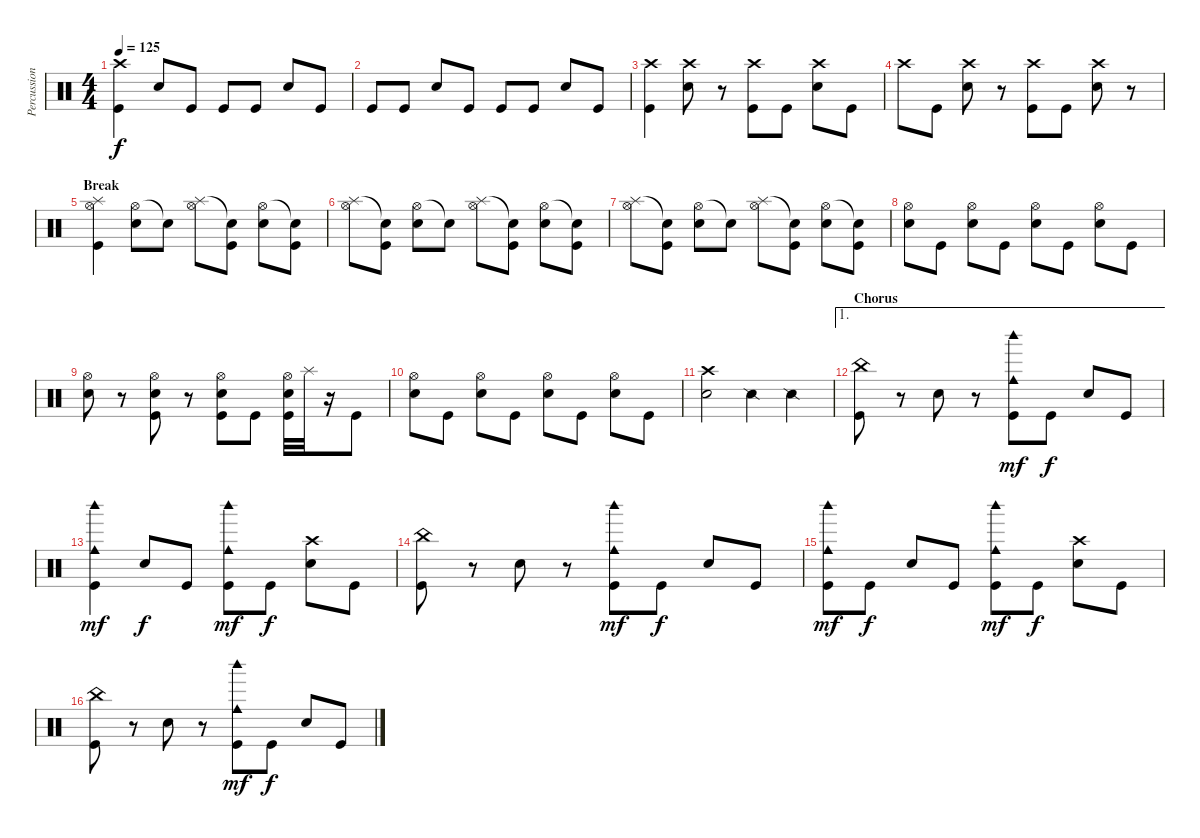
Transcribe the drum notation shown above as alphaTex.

\track ("Percussion" "Percussion") {instrument percussion}
\staff {score}
\articulation defaults
\ts (4 4)
\tempo 125
\clef neutral
\ks c
("Crash high (hit)" "Kick (hit)").4{dy f} "Snare (hit) 2".8 "Kick (hit)".8 "Kick (hit)".8 "Kick (hit)".8 "Snare (hit) 2".8 "Kick (hit)".8 |
"Kick (hit)".8 "Kick (hit)".8 "Snare (hit) 2".8 "Kick (hit)".8 "Kick (hit)".8 "Kick (hit)".8 "Snare (hit) 2".8 "Kick (hit)".8 |
("Crash high (hit)" "Kick (hit)").4 ("Crash high (hit)" "Snare (hit) 2").8 r.8 ("Crash high (hit)" "Kick (hit)").8 "Kick (hit)".8 ("Crash high (hit)" "Snare (hit) 2").8 "Kick (hit)".8 |
"Crash high (hit)".8 "Kick (hit)".8 ("Crash high (hit)" "Snare (hit) 2").8 r.8 ("Crash high (hit)" "Kick (hit)").8 "Kick (hit)".8 ("Crash high (hit)" "Snare (hit) 2").8 r.8 |
\section ("" "Break")
("Splash (hit)" "Hi-Hat (open)" "Kick (hit)").4 ("Hi-Hat (open)" "Snare (hit) 2").8 "Snare (hit)"{t}.8 ("Splash (hit)" "Hi-Hat (open)").8 ("Snare (hit)"{t} "Kick (hit)").8 ("Hi-Hat (open)" "Snare (hit) 2").8 ("Snare (hit)"{t} "Kick (hit)").8 |
("Splash (hit)" "Hi-Hat (open)").8 ("Snare (hit)"{t} "Kick (hit)").8 ("Hi-Hat (open)" "Snare (hit) 2").8 "Snare (hit)"{t}.8 ("Splash (hit)" "Hi-Hat (open)").8 ("Snare (hit)"{t} "Kick (hit)").8 ("Hi-Hat (open)" "Snare (hit) 2").8 ("Snare (hit)"{t} "Kick (hit)").8 |
("Splash (hit)" "Hi-Hat (open)").8 ("Snare (hit)"{t} "Kick (hit)").8 ("Hi-Hat (open)" "Snare (hit) 2").8 "Snare (hit)"{t}.8 ("Splash (hit)" "Hi-Hat (open)").8 ("Snare (hit)"{t} "Kick (hit)").8 ("Hi-Hat (open)" "Snare (hit) 2").8 ("Snare (hit)"{t} "Kick (hit)").8 |
("Hi-Hat (open)" "Snare (hit) 2").8 "Kick (hit)".8 ("Hi-Hat (open)" "Snare (hit) 2").8 "Kick (hit)".8 ("Hi-Hat (open)" "Snare (hit) 2").8 "Kick (hit)".8 ("Hi-Hat (open)" "Snare (hit) 2").8 "Kick (hit)".8 |
("Hi-Hat (open)" "Snare (hit) 2").8 r.8 ("Hi-Hat (open)" "Snare (hit) 2" "Kick (hit)").8 r.8 ("Hi-Hat (open)" "Snare (hit) 2" "Kick (hit)").8 "Kick (hit)".8 ("Hi-Hat (open)" "Snare (hit) 2" "Kick (hit)").32 "Splash (hit)".32 r.16 "Kick (hit)".8 |
("Hi-Hat (open)" "Snare (hit) 2").8 "Kick (hit)".8 ("Hi-Hat (open)" "Snare (hit) 2").8 "Kick (hit)".8 ("Hi-Hat (open)" "Snare (hit) 2").8 "Kick (hit)".8 ("Hi-Hat (open)" "Snare (hit) 2").8 "Kick (hit)".8 |
("Crash high (hit)" "Snare (hit) 2").2 "Snare (side stick) 2".4 "Snare (side stick) 2".4 |
\ae 1
\section ("" "Chorus")
("China (hit)" "Kick (hit)").8 r.8 "Snare (hit) 2".8 r.8 ("Woodblock high (hit)" "Cowbell medium (hit)" "Kick (hit)").8{dy mf} "Kick (hit)".8{dy f} "Snare (hit) 2".8 "Kick (hit)".8 |
("Woodblock high (hit)" "Cowbell medium (hit)" "Kick (hit)").4{dy mf} "Snare (hit) 2".8{dy f} "Kick (hit)".8 ("Woodblock high (hit)" "Cowbell medium (hit)" "Kick (hit)").8{dy mf} "Kick (hit)".8{dy f} ("Crash high (hit)" "Snare (hit) 2").8 "Kick (hit)".8 |
("China (hit)" "Kick (hit)").8 r.8 "Snare (hit) 2".8 r.8 ("Woodblock high (hit)" "Cowbell medium (hit)" "Kick (hit)").8{dy mf} "Kick (hit)".8{dy f} "Snare (hit) 2".8 "Kick (hit)".8 |
("Woodblock high (hit)" "Cowbell medium (hit)" "Kick (hit)").8{dy mf} "Kick (hit)".8{dy f} "Snare (hit) 2".8 "Kick (hit)".8 ("Woodblock high (hit)" "Cowbell medium (hit)" "Kick (hit)").8{dy mf} "Kick (hit)".8{dy f} ("Crash high (hit)" "Snare (hit) 2").8 "Kick (hit)".8 |
("China (hit)" "Kick (hit)").8 r.8 "Snare (hit) 2".8 r.8 ("Woodblock high (hit)" "Cowbell medium (hit)" "Kick (hit)").8{dy mf} "Kick (hit)".8{dy f} "Snare (hit) 2".8 "Kick (hit)".8
